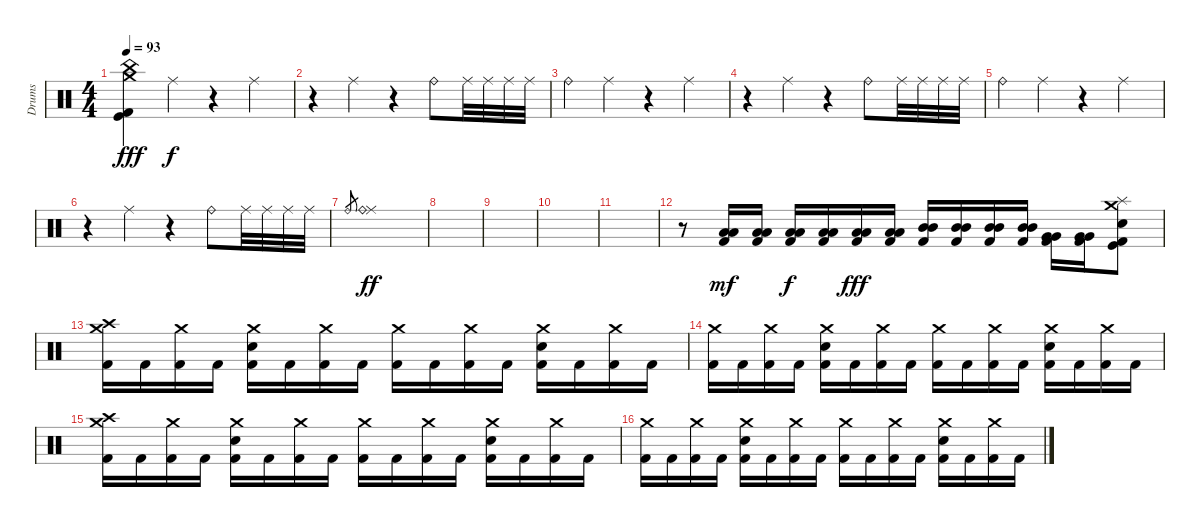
\track ("Drums" "Drums") {instrument percussion}
\staff {score}
\articulation defaults
\ts (4 4)
\tempo 93
\clef neutral
\ks c
("Crash medium (hit)" "China (hit)" "Kick (hit)" "Kick (hit) 2").4{dy fff} "Ride (middle)".4{dy f} r.4 "Ride (middle)".4 |
r.4 "Ride (middle)".4 r.4 "Ride (bell)".8 "Ride (middle)".32 "Ride (middle)".32 "Ride (middle)".32 "Ride (middle)".32 |
"Ride (bell)".4 "Ride (middle)".4 r.4 "Ride (middle)".4 |
r.4 "Ride (middle)".4 r.4 "Ride (bell)".8 "Ride (middle)".32 "Ride (middle)".32 "Ride (middle)".32 "Ride (middle)".32 |
"Ride (bell)".4 "Ride (middle)".4 r.4 "Ride (middle)".4 |
r.4 "Ride (middle)".4 r.4 "Ride (bell)".8 "Ride (middle)".32 "Ride (middle)".32 "Ride (middle)".32 "Ride (middle)".32 |
"Ride (bell)".8{gr} ("Ride (middle)" "Ride (bell)").1{dy ff} |
|
|
|
|
r.8 ("Low Tom (hit)" "Low Tom (hit)" "Kick (hit) 2").16{dy mf} ("Low Tom (hit)" "Low Tom (hit)" "Kick (hit) 2").16 ("Low Tom (hit)" "Low Tom (hit)" "Kick (hit) 2").16{dy f} ("Low Tom (hit)" "Low Tom (hit)" "Kick (hit) 2").16 ("Low Tom (hit)" "Low Tom (hit)" "Kick (hit) 2").16{dy fff} ("Low Tom (hit)" "Low Tom (hit)" "Kick (hit) 2").16 ("Mid Tom (hit)" "Mid Tom (hit)" "Kick (hit) 2").16 ("Mid Tom (hit)" "Mid Tom (hit)" "Kick (hit) 2").16 ("Mid Tom (hit)" "Mid Tom (hit)" "Kick (hit) 2").16 ("Mid Tom (hit)" "Mid Tom (hit)" "Kick (hit) 2").16 ("Very Low Tom (hit)" "Very Low Tom (hit)" "Kick (hit) 2").16 ("Very Low Tom (hit)" "Very Low Tom (hit)" "Kick (hit) 2").16 ("Crash medium (hit)" "Splash (hit)" "Electric Snare (hit)" "Kick (hit)" "Kick (hit) 2").8 |
("Crash medium (hit)" "Crash high (hit)" "Kick (hit) 2").16 "Kick (hit) 2".16 ("Crash medium (hit)" "Kick (hit) 2").16 "Kick (hit) 2".16 ("Crash medium (hit)" "Electric Snare (hit)" "Kick (hit) 2").16 "Kick (hit) 2".16 ("Crash medium (hit)" "Kick (hit) 2").16 "Kick (hit) 2".16 ("Crash medium (hit)" "Kick (hit) 2").16 "Kick (hit) 2".16 ("Crash medium (hit)" "Kick (hit) 2").16 "Kick (hit) 2".16 ("Crash medium (hit)" "Electric Snare (hit)" "Kick (hit) 2").16 "Kick (hit) 2".16 ("Crash medium (hit)" "Kick (hit) 2").16 "Kick (hit) 2".16 |
("Crash medium (hit)" "Kick (hit) 2").16 "Kick (hit) 2".16 ("Crash medium (hit)" "Kick (hit) 2").16 "Kick (hit) 2".16 ("Crash medium (hit)" "Electric Snare (hit)" "Kick (hit) 2").16 "Kick (hit) 2".16 ("Crash medium (hit)" "Kick (hit) 2").16 "Kick (hit) 2".16 ("Crash medium (hit)" "Kick (hit) 2").16 "Kick (hit) 2".16 ("Crash medium (hit)" "Kick (hit) 2").16 "Kick (hit) 2".16 ("Crash medium (hit)" "Electric Snare (hit)" "Kick (hit) 2").16 "Kick (hit) 2".16 ("Crash medium (hit)" "Kick (hit) 2").16 "Kick (hit) 2".16 |
("Crash medium (hit)" "Crash high (hit)" "Kick (hit) 2").16 "Kick (hit) 2".16 ("Crash medium (hit)" "Kick (hit) 2").16 "Kick (hit) 2".16 ("Crash medium (hit)" "Electric Snare (hit)" "Kick (hit) 2").16 "Kick (hit) 2".16 ("Crash medium (hit)" "Kick (hit) 2").16 "Kick (hit) 2".16 ("Crash medium (hit)" "Kick (hit) 2").16 "Kick (hit) 2".16 ("Crash medium (hit)" "Kick (hit) 2").16 "Kick (hit) 2".16 ("Crash medium (hit)" "Electric Snare (hit)" "Kick (hit) 2").16 "Kick (hit) 2".16 ("Crash medium (hit)" "Kick (hit) 2").16 "Kick (hit) 2".16 |
("Crash medium (hit)" "Kick (hit) 2").16 "Kick (hit) 2".16 ("Crash medium (hit)" "Kick (hit) 2").16 "Kick (hit) 2".16 ("Crash medium (hit)" "Electric Snare (hit)" "Kick (hit) 2").16 "Kick (hit) 2".16 ("Crash medium (hit)" "Kick (hit) 2").16 "Kick (hit) 2".16 ("Crash medium (hit)" "Kick (hit) 2").16 "Kick (hit) 2".16 ("Crash medium (hit)" "Kick (hit) 2").16 "Kick (hit) 2".16 ("Crash medium (hit)" "Electric Snare (hit)" "Kick (hit) 2").16 "Kick (hit) 2".16 ("Crash medium (hit)" "Kick (hit) 2").16 "Kick (hit) 2".16
